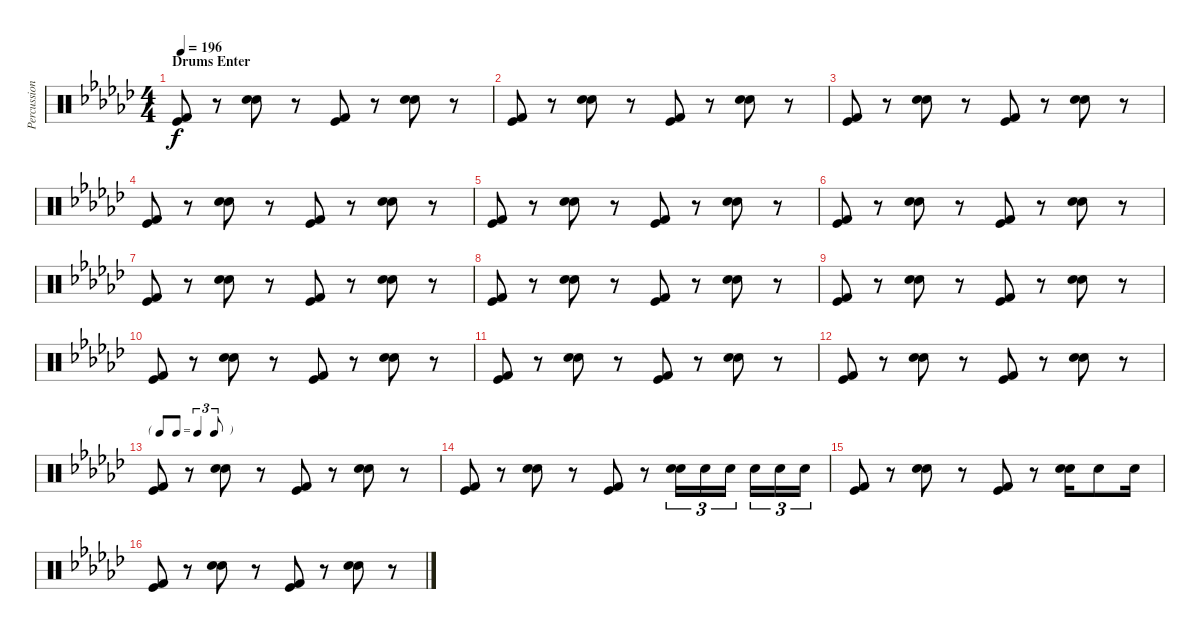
\track ("Percussions" "Percussion") {instrument percussion}
\staff {score}
\articulation defaults
\ts (4 4)
\section ("" "Drums Enter")
\tempo 196
\clef neutral
\ks gb
("Kick (hit) 2" "Kick (hit)").8{dy f} r.8 ("Snare (hit) 2" "Electric Snare (hit)").8 r.8 ("Kick (hit) 2" "Kick (hit)").8 r.8 ("Snare (hit) 2" "Electric Snare (hit)").8 r.8 |
("Kick (hit) 2" "Kick (hit)").8 r.8 ("Snare (hit) 2" "Electric Snare (hit)").8 r.8 ("Kick (hit) 2" "Kick (hit)").8 r.8 ("Snare (hit) 2" "Electric Snare (hit)").8 r.8 |
("Kick (hit) 2" "Kick (hit)").8 r.8 ("Snare (hit) 2" "Electric Snare (hit)").8 r.8 ("Kick (hit) 2" "Kick (hit)").8 r.8 ("Snare (hit) 2" "Electric Snare (hit)").8 r.8 |
("Kick (hit) 2" "Kick (hit)").8 r.8 ("Snare (hit) 2" "Electric Snare (hit)").8 r.8 ("Kick (hit) 2" "Kick (hit)").8 r.8 ("Snare (hit) 2" "Electric Snare (hit)").8 r.8 |
("Kick (hit) 2" "Kick (hit)").8 r.8 ("Snare (hit) 2" "Electric Snare (hit)").8 r.8 ("Kick (hit) 2" "Kick (hit)").8 r.8 ("Snare (hit) 2" "Electric Snare (hit)").8 r.8 |
("Kick (hit) 2" "Kick (hit)").8 r.8 ("Snare (hit) 2" "Electric Snare (hit)").8 r.8 ("Kick (hit) 2" "Kick (hit)").8 r.8 ("Snare (hit) 2" "Electric Snare (hit)").8 r.8 |
("Kick (hit) 2" "Kick (hit)").8 r.8 ("Snare (hit) 2" "Electric Snare (hit)").8 r.8 ("Kick (hit) 2" "Kick (hit)").8 r.8 ("Snare (hit) 2" "Electric Snare (hit)").8 r.8 |
("Kick (hit) 2" "Kick (hit)").8 r.8 ("Snare (hit) 2" "Electric Snare (hit)").8 r.8 ("Kick (hit) 2" "Kick (hit)").8 r.8 ("Snare (hit) 2" "Electric Snare (hit)").8 r.8 |
("Kick (hit) 2" "Kick (hit)").8 r.8 ("Snare (hit) 2" "Electric Snare (hit)").8 r.8 ("Kick (hit) 2" "Kick (hit)").8 r.8 ("Snare (hit) 2" "Electric Snare (hit)").8 r.8 |
("Kick (hit) 2" "Kick (hit)").8 r.8 ("Snare (hit) 2" "Electric Snare (hit)").8 r.8 ("Kick (hit) 2" "Kick (hit)").8 r.8 ("Snare (hit) 2" "Electric Snare (hit)").8 r.8 |
("Kick (hit) 2" "Kick (hit)").8 r.8 ("Snare (hit) 2" "Electric Snare (hit)").8 r.8 ("Kick (hit) 2" "Kick (hit)").8 r.8 ("Snare (hit) 2" "Electric Snare (hit)").8 r.8 |
("Kick (hit) 2" "Kick (hit)").8 r.8 ("Snare (hit) 2" "Electric Snare (hit)").8 r.8 ("Kick (hit) 2" "Kick (hit)").8 r.8 ("Snare (hit) 2" "Electric Snare (hit)").8 r.8 |
\tf triplet8th
("Kick (hit) 2" "Kick (hit)").8 r.8 ("Snare (hit) 2" "Electric Snare (hit)").8 r.8 ("Kick (hit) 2" "Kick (hit)").8 r.8 ("Snare (hit) 2" "Electric Snare (hit)").8 r.8 |
("Kick (hit) 2" "Kick (hit)").8 r.8 ("Snare (hit) 2" "Electric Snare (hit)").8 r.8 ("Kick (hit) 2" "Kick (hit)").8 r.8 ("Hand Clap (hit)" "Electric Snare (hit)").16{tu (3 2)} "Hand Clap (hit)".16{tu (3 2)} "Hand Clap (hit)".16{tu (3 2) beam splitsecondary} "Hand Clap (hit)".16{tu (3 2)} "Hand Clap (hit)".16{tu (3 2)} "Hand Clap (hit)".16{tu (3 2)} |
("Kick (hit) 2" "Kick (hit)").8 r.8 ("Snare (hit) 2" "Electric Snare (hit)").8 r.8 ("Kick (hit) 2" "Kick (hit)").8 r.8 ("Snare (hit) 2" "Electric Snare (hit)").16 "Hand Clap (hit)".8 "Hand Clap (hit)".16 |
("Kick (hit) 2" "Kick (hit)").8 r.8 ("Snare (hit) 2" "Electric Snare (hit)").8 r.8 ("Kick (hit) 2" "Kick (hit)").8 r.8 ("Snare (hit) 2" "Electric Snare (hit)").8 r.8
